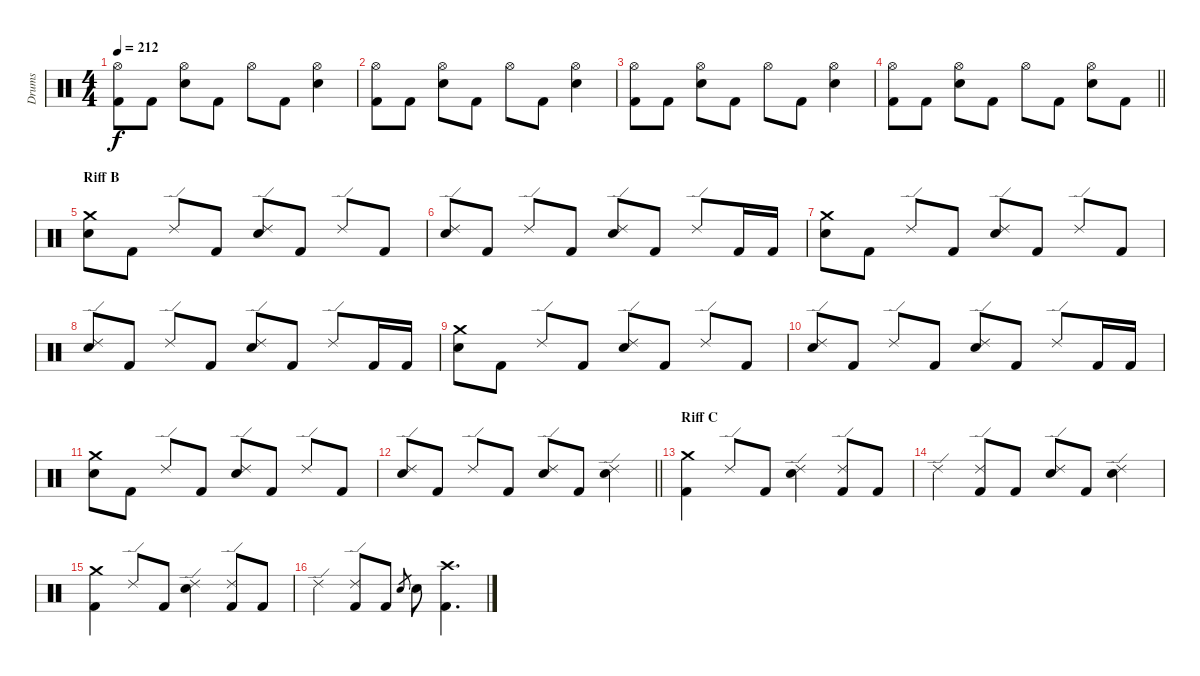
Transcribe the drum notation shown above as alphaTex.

\track ("Drums" "Drums") {instrument percussion}
\staff {score}
\articulation defaults
\ts (4 4)
\tempo 212
\clef neutral
\ks c
("Hi-Hat (open)" "Kick (hit) 2").8{dy f} "Kick (hit) 2".8 ("Hi-Hat (open)" "Electric Snare (hit)").8 "Kick (hit) 2".8 "Hi-Hat (open)".8 "Kick (hit) 2".8 ("Hi-Hat (open)" "Electric Snare (hit)").4 |
("Hi-Hat (open)" "Kick (hit) 2").8 "Kick (hit) 2".8 ("Hi-Hat (open)" "Electric Snare (hit)").8 "Kick (hit) 2".8 "Hi-Hat (open)".8 "Kick (hit) 2".8 ("Hi-Hat (open)" "Electric Snare (hit)").4 |
("Hi-Hat (open)" "Kick (hit) 2").8 "Kick (hit) 2".8 ("Hi-Hat (open)" "Electric Snare (hit)").8 "Kick (hit) 2".8 "Hi-Hat (open)".8 "Kick (hit) 2".8 ("Hi-Hat (open)" "Electric Snare (hit)").4 |
\barLineRight lightlight
("Hi-Hat (open)" "Kick (hit) 2").8 "Kick (hit) 2".8 ("Hi-Hat (open)" "Electric Snare (hit)").8 "Kick (hit) 2".8 "Hi-Hat (open)".8 "Kick (hit) 2".8 ("Hi-Hat (open)" "Electric Snare (hit)").8 "Kick (hit) 2".8 |
\section ("" "Riff B")
("Crash medium (hit)" "Electric Snare (hit)").8 "Kick (hit) 2".8 "Ride (edge) 2".8 "Kick (hit) 2".8 ("Ride (edge) 2" "Electric Snare (hit)").8 "Kick (hit) 2".8 "Ride (edge) 2".8 "Kick (hit) 2".8 |
("Ride (edge) 2" "Electric Snare (hit)").8 "Kick (hit) 2".8 "Ride (edge) 2".8 "Kick (hit) 2".8 ("Ride (edge) 2" "Electric Snare (hit)").8 "Kick (hit) 2".8 "Ride (edge) 2".8 "Kick (hit) 2".16 "Kick (hit) 2".16 |
("Crash medium (hit)" "Electric Snare (hit)").8 "Kick (hit) 2".8 "Ride (edge) 2".8 "Kick (hit) 2".8 ("Ride (edge) 2" "Electric Snare (hit)").8 "Kick (hit) 2".8 "Ride (edge) 2".8 "Kick (hit) 2".8 |
("Ride (edge) 2" "Electric Snare (hit)").8 "Kick (hit) 2".8 "Ride (edge) 2".8 "Kick (hit) 2".8 ("Ride (edge) 2" "Electric Snare (hit)").8 "Kick (hit) 2".8 "Ride (edge) 2".8 "Kick (hit) 2".16 "Kick (hit) 2".16 |
("Crash medium (hit)" "Electric Snare (hit)").8 "Kick (hit) 2".8 "Ride (edge) 2".8 "Kick (hit) 2".8 ("Ride (edge) 2" "Electric Snare (hit)").8 "Kick (hit) 2".8 "Ride (edge) 2".8 "Kick (hit) 2".8 |
("Ride (edge) 2" "Electric Snare (hit)").8 "Kick (hit) 2".8 "Ride (edge) 2".8 "Kick (hit) 2".8 ("Ride (edge) 2" "Electric Snare (hit)").8 "Kick (hit) 2".8 "Ride (edge) 2".8 "Kick (hit) 2".16 "Kick (hit) 2".16 |
("Crash medium (hit)" "Electric Snare (hit)").8 "Kick (hit) 2".8 "Ride (edge) 2".8 "Kick (hit) 2".8 ("Ride (edge) 2" "Electric Snare (hit)").8 "Kick (hit) 2".8 "Ride (edge) 2".8 "Kick (hit) 2".8 |
\barLineRight lightlight
("Ride (edge) 2" "Electric Snare (hit)").8 "Kick (hit) 2".8 "Ride (edge) 2".8 "Kick (hit) 2".8 ("Ride (edge) 2" "Electric Snare (hit)").8 "Kick (hit) 2".8 ("Ride (edge) 2" "Electric Snare (hit)").4 |
\section ("" "Riff C")
("Crash medium (hit)" "Kick (hit) 2").4 "Ride (edge) 2".8 "Kick (hit) 2".8 ("Ride (edge) 2" "Electric Snare (hit)").4 ("Ride (edge) 2" "Kick (hit) 2").8 "Kick (hit) 2".8 |
"Ride (edge) 2".4 ("Ride (edge) 2" "Kick (hit) 2").8 "Kick (hit) 2".8 ("Ride (edge) 2" "Electric Snare (hit)").8 "Kick (hit) 2".8 ("Ride (edge) 2" "Electric Snare (hit)").4 |
("Crash medium (hit)" "Kick (hit) 2").4 "Ride (edge) 2".8 "Kick (hit) 2".8 ("Ride (edge) 2" "Electric Snare (hit)").4 ("Ride (edge) 2" "Kick (hit) 2").8 "Kick (hit) 2".8 |
"Ride (edge) 2".4 ("Ride (edge) 2" "Kick (hit) 2").8 "Kick (hit) 2".8 "Electric Snare (hit)".8{gr} "Electric Snare (hit)".8 ("Crash high (hit)" "Kick (hit) 2").4{d}
